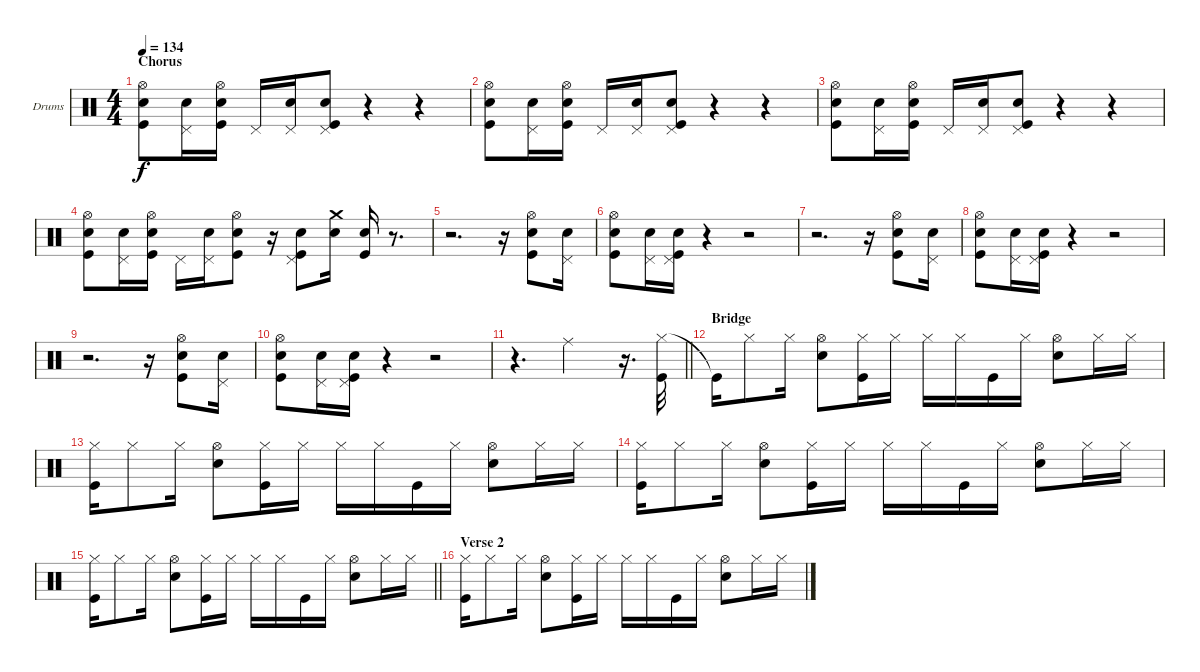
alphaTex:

\bracketExtendMode groupsimilarinstruments
\firstSystemTrackNameOrientation horizontal
\otherSystemsTrackNameOrientation horizontal
\track ("Drumkit" "Drums") {instrument percussion}
\staff {score}
\articulation defaults
\ts (4 4)
\section ("" "Chorus")
\tempo 134
\clef neutral
\ks c
("Hi-Hat (open)" "Snare (hit) 2" "Kick (hit)").8{dy f} ("Pedal Hi-Hat (hit)" "Snare (hit) 2").16 ("Hi-Hat (open)" "Snare (hit) 2" "Kick (hit)").16 "Pedal Hi-Hat (hit)".16 ("Pedal Hi-Hat (hit)" "Snare (hit) 2").16 ("Pedal Hi-Hat (hit)" "Snare (hit) 2" "Kick (hit)").8 r.4 r.4 |
("Hi-Hat (open)" "Snare (hit) 2" "Kick (hit)").8 ("Pedal Hi-Hat (hit)" "Snare (hit) 2").16 ("Hi-Hat (open)" "Snare (hit) 2" "Kick (hit)").16 "Pedal Hi-Hat (hit)".16 ("Pedal Hi-Hat (hit)" "Snare (hit) 2").16 ("Pedal Hi-Hat (hit)" "Snare (hit) 2" "Kick (hit)").8 r.4 r.4 |
("Hi-Hat (open)" "Snare (hit) 2" "Kick (hit)").8 ("Pedal Hi-Hat (hit)" "Snare (hit) 2").16 ("Hi-Hat (open)" "Snare (hit) 2" "Kick (hit)").16 "Pedal Hi-Hat (hit)".16 ("Pedal Hi-Hat (hit)" "Snare (hit) 2").16 ("Pedal Hi-Hat (hit)" "Snare (hit) 2" "Kick (hit)").8 r.4 r.4 |
("Hi-Hat (open)" "Snare (hit) 2" "Kick (hit)").8 ("Pedal Hi-Hat (hit)" "Snare (hit) 2").16 ("Hi-Hat (open)" "Snare (hit) 2" "Kick (hit)").16 "Pedal Hi-Hat (hit)".16 ("Pedal Hi-Hat (hit)" "Snare (hit) 2").16 ("Hi-Hat (open)" "Snare (hit) 2" "Kick (hit)").8 r.16 ("Pedal Hi-Hat (hit)" "Snare (hit) 2" "Kick (hit)").8 ("Crash medium (hit)" "Snare (hit) 2").16 ("Snare (hit) 2" "Kick (hit)").16 r.8{d} |
r.2{d} r.16 ("Hi-Hat (open)" "Snare (hit) 2" "Kick (hit)").8 ("Pedal Hi-Hat (hit)" "Snare (hit) 2").16 |
("Hi-Hat (open)" "Snare (hit) 2" "Kick (hit)").8 ("Pedal Hi-Hat (hit)" "Snare (hit) 2").16 ("Pedal Hi-Hat (hit)" "Snare (hit) 2" "Kick (hit)").16 r.4 r.2 |
r.2{d} r.16 ("Hi-Hat (open)" "Snare (hit) 2" "Kick (hit)").8 ("Pedal Hi-Hat (hit)" "Snare (hit) 2").16 |
("Hi-Hat (open)" "Snare (hit) 2" "Kick (hit)").8 ("Pedal Hi-Hat (hit)" "Snare (hit) 2").16 ("Pedal Hi-Hat (hit)" "Snare (hit) 2" "Kick (hit)").16 r.4 r.2 |
r.2{d} r.16 ("Hi-Hat (open)" "Snare (hit) 2" "Kick (hit)").8 ("Pedal Hi-Hat (hit)" "Snare (hit) 2").16 |
("Hi-Hat (open)" "Snare (hit) 2" "Kick (hit)").8 ("Pedal Hi-Hat (hit)" "Snare (hit) 2").16 ("Pedal Hi-Hat (hit)" "Snare (hit) 2" "Kick (hit)").16 r.4 r.2 |
\barLineRight lightlight
r.4{d} "Ride (middle)".2 r.16{d} ("Hi-Hat (closed)" "Kick (hit)").32 |
\section ("" "Bridge")
"Kick (hit)"{t}.16 "Hi-Hat (closed)".8 "Hi-Hat (closed)".16 ("Hi-Hat (open)" "Snare (hit) 2").8 ("Hi-Hat (closed)" "Kick (hit)").16 "Hi-Hat (closed)".16 "Hi-Hat (closed)".16 "Hi-Hat (closed)".16 "Kick (hit)".16 "Hi-Hat (closed)".16 ("Hi-Hat (open)" "Snare (hit) 2").8 "Hi-Hat (closed)".16 "Hi-Hat (closed)".16 |
("Hi-Hat (closed)" "Kick (hit)").16 "Hi-Hat (closed)".8 "Hi-Hat (closed)".16 ("Hi-Hat (open)" "Snare (hit) 2").8 ("Hi-Hat (closed)" "Kick (hit)").16 "Hi-Hat (closed)".16 "Hi-Hat (closed)".16 "Hi-Hat (closed)".16 "Kick (hit)".16 "Hi-Hat (closed)".16 ("Hi-Hat (open)" "Snare (hit) 2").8 "Hi-Hat (closed)".16 "Hi-Hat (closed)".16 |
("Hi-Hat (closed)" "Kick (hit)").16 "Hi-Hat (closed)".8 "Hi-Hat (closed)".16 ("Hi-Hat (open)" "Snare (hit) 2").8 ("Hi-Hat (closed)" "Kick (hit)").16 "Hi-Hat (closed)".16 "Hi-Hat (closed)".16 "Hi-Hat (closed)".16 "Kick (hit)".16 "Hi-Hat (closed)".16 ("Hi-Hat (open)" "Snare (hit) 2").8 "Hi-Hat (closed)".16 "Hi-Hat (closed)".16 |
\barLineRight lightlight
("Hi-Hat (closed)" "Kick (hit)").16 "Hi-Hat (closed)".8 "Hi-Hat (closed)".16 ("Hi-Hat (open)" "Snare (hit) 2").8 ("Hi-Hat (closed)" "Kick (hit)").16 "Hi-Hat (closed)".16 "Hi-Hat (closed)".16 "Hi-Hat (closed)".16 "Kick (hit)".16 "Hi-Hat (closed)".16 ("Hi-Hat (open)" "Snare (hit) 2").8 "Hi-Hat (closed)".16 "Hi-Hat (closed)".16 |
\section ("" "Verse 2")
("Hi-Hat (closed)" "Kick (hit)").16 "Hi-Hat (closed)".8 "Hi-Hat (closed)".16 ("Hi-Hat (open)" "Snare (hit) 2").8 ("Hi-Hat (closed)" "Kick (hit)").16 "Hi-Hat (closed)".16 "Hi-Hat (closed)".16 "Hi-Hat (closed)".16 "Kick (hit)".16 "Hi-Hat (closed)".16 ("Hi-Hat (open)" "Snare (hit) 2").8 "Hi-Hat (closed)".16 "Hi-Hat (closed)".16
